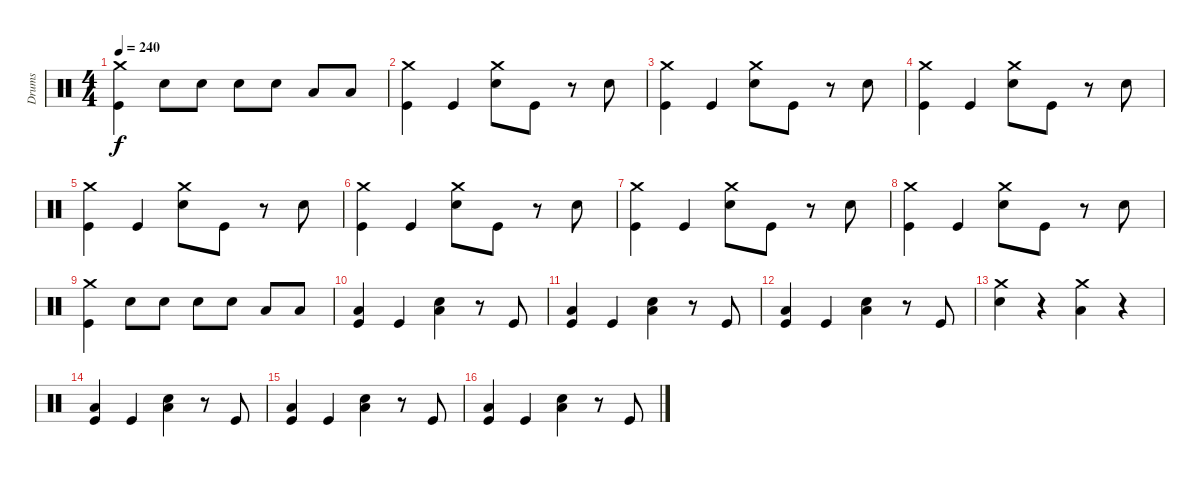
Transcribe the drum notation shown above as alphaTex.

\track ("Drums" "Drums") {instrument percussion}
\staff {score}
\articulation defaults
\ts (4 4)
\tempo 240
\clef neutral
\ks c
("Crash medium (hit)" "Kick (hit)").4{dy f} "Snare (hit) 2".8 "Snare (hit) 2".8 "Snare (hit) 2".8 "Snare (hit) 2".8 "Low Tom (hit)".8 "Low Tom (hit)".8 |
("Crash medium (hit)" "Kick (hit)").4 "Kick (hit)".4 ("Crash medium (hit)" "Snare (hit) 2").8 "Kick (hit)".8 r.8 "Snare (hit) 2".8 |
("Crash medium (hit)" "Kick (hit)").4 "Kick (hit)".4 ("Crash medium (hit)" "Snare (hit) 2").8 "Kick (hit)".8 r.8 "Snare (hit) 2".8 |
("Crash medium (hit)" "Kick (hit)").4 "Kick (hit)".4 ("Crash medium (hit)" "Snare (hit) 2").8 "Kick (hit)".8 r.8 "Snare (hit) 2".8 |
("Crash medium (hit)" "Kick (hit)").4 "Kick (hit)".4 ("Crash medium (hit)" "Snare (hit) 2").8 "Kick (hit)".8 r.8 "Snare (hit) 2".8 |
("Crash medium (hit)" "Kick (hit)").4 "Kick (hit)".4 ("Crash medium (hit)" "Snare (hit) 2").8 "Kick (hit)".8 r.8 "Snare (hit) 2".8 |
("Crash medium (hit)" "Kick (hit)").4 "Kick (hit)".4 ("Crash medium (hit)" "Snare (hit) 2").8 "Kick (hit)".8 r.8 "Snare (hit) 2".8 |
("Crash medium (hit)" "Kick (hit)").4 "Kick (hit)".4 ("Crash medium (hit)" "Snare (hit) 2").8 "Kick (hit)".8 r.8 "Snare (hit) 2".8 |
("Crash medium (hit)" "Kick (hit)").4 "Snare (hit) 2".8 "Snare (hit) 2".8 "Snare (hit) 2".8 "Snare (hit) 2".8 "Low Tom (hit)".8 "Low Tom (hit)".8 |
("Low Floor Tom (hit)" "Kick (hit)").4 "Kick (hit)".4 ("Low Floor Tom (hit)" "Snare (hit) 2").4 r.8 "Kick (hit)".8 |
("Low Floor Tom (hit)" "Kick (hit)").4 "Kick (hit)".4 ("Low Floor Tom (hit)" "Snare (hit) 2").4 r.8 "Kick (hit)".8 |
("Low Floor Tom (hit)" "Kick (hit)").4 "Kick (hit)".4 ("Low Floor Tom (hit)" "Snare (hit) 2").4 r.8 "Kick (hit)".8 |
("Crash medium (hit)" "Snare (hit) 2").4 r.4 ("Crash medium (hit)" "Low Tom (hit)").4 r.4 |
("Low Floor Tom (hit)" "Kick (hit)").4 "Kick (hit)".4 ("Low Floor Tom (hit)" "Snare (hit) 2").4 r.8 "Kick (hit)".8 |
("Low Floor Tom (hit)" "Kick (hit)").4 "Kick (hit)".4 ("Low Floor Tom (hit)" "Snare (hit) 2").4 r.8 "Kick (hit)".8 |
("Low Floor Tom (hit)" "Kick (hit)").4 "Kick (hit)".4 ("Low Floor Tom (hit)" "Snare (hit) 2").4 r.8 "Kick (hit)".8
